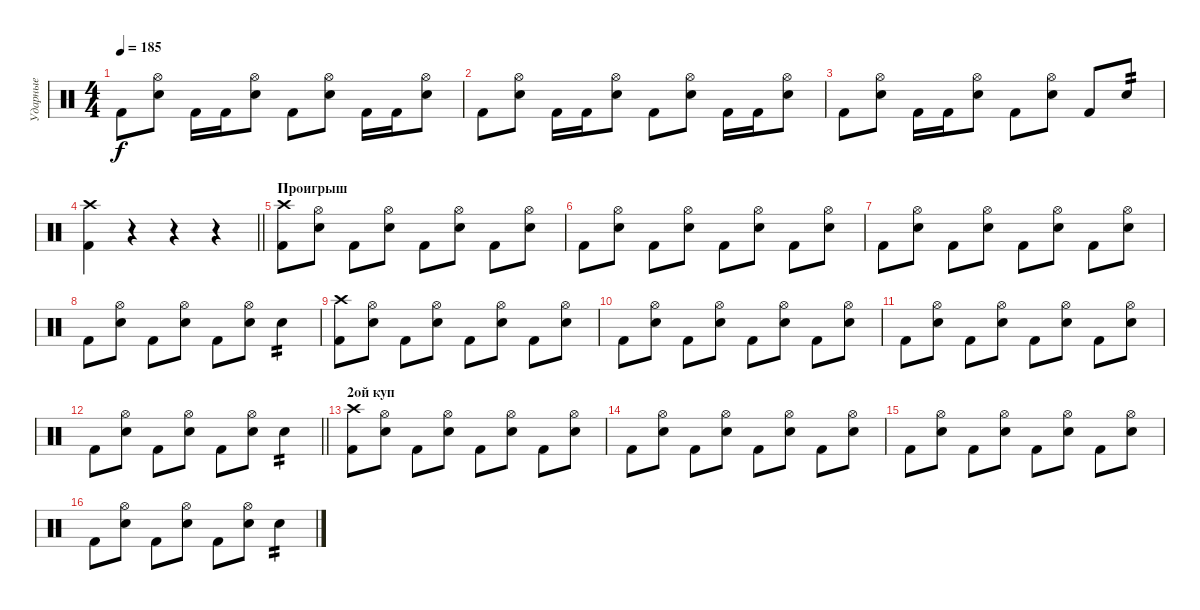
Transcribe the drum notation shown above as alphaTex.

\track ("Ударные" "Ударные") {instrument percussion}
\staff {score}
\articulation defaults
\ts (4 4)
\tempo 185
\clef neutral
\ks c "Kick (hit) 2".8{dy f}
("Hi-Hat (open)" "Electric Snare (hit)").8 "Kick (hit) 2".16 "Kick (hit) 2".16 ("Hi-Hat (open)" "Electric Snare (hit)").8 "Kick (hit) 2".8 ("Hi-Hat (open)" "Electric Snare (hit)").8 "Kick (hit) 2".16 "Kick (hit) 2".16 ("Hi-Hat (open)" "Electric Snare (hit)").8 |
"Kick (hit) 2".8 ("Hi-Hat (open)" "Electric Snare (hit)").8 "Kick (hit) 2".16 "Kick (hit) 2".16 ("Hi-Hat (open)" "Electric Snare (hit)").8 "Kick (hit) 2".8 ("Hi-Hat (open)" "Electric Snare (hit)").8 "Kick (hit) 2".16 "Kick (hit) 2".16 ("Hi-Hat (open)" "Electric Snare (hit)").8 |
"Kick (hit) 2".8 ("Hi-Hat (open)" "Electric Snare (hit)").8 "Kick (hit) 2".16 "Kick (hit) 2".16 ("Hi-Hat (open)" "Electric Snare (hit)").8 "Kick (hit) 2".8 ("Hi-Hat (open)" "Electric Snare (hit)").8 "Kick (hit) 2".8 "Electric Snare (hit)".8{tp 2} |
\barLineRight lightlight
("Crash high (hit)" "Kick (hit) 2").4 r.4 r.4 r.4 |
\section ("" "Проигрыш")
("Crash high (hit)" "Kick (hit) 2").8 ("Hi-Hat (open)" "Electric Snare (hit)").8 "Kick (hit) 2".8 ("Hi-Hat (open)" "Electric Snare (hit)").8 "Kick (hit) 2".8 ("Hi-Hat (open)" "Electric Snare (hit)").8 "Kick (hit) 2".8 ("Hi-Hat (open)" "Electric Snare (hit)").8 |
"Kick (hit) 2".8 ("Hi-Hat (open)" "Electric Snare (hit)").8 "Kick (hit) 2".8 ("Hi-Hat (open)" "Electric Snare (hit)").8 "Kick (hit) 2".8 ("Hi-Hat (open)" "Electric Snare (hit)").8 "Kick (hit) 2".8 ("Hi-Hat (open)" "Electric Snare (hit)").8 |
"Kick (hit) 2".8 ("Hi-Hat (open)" "Electric Snare (hit)").8 "Kick (hit) 2".8 ("Hi-Hat (open)" "Electric Snare (hit)").8 "Kick (hit) 2".8 ("Hi-Hat (open)" "Electric Snare (hit)").8 "Kick (hit) 2".8 ("Hi-Hat (open)" "Electric Snare (hit)").8 |
"Kick (hit) 2".8 ("Hi-Hat (open)" "Electric Snare (hit)").8 "Kick (hit) 2".8 ("Hi-Hat (open)" "Electric Snare (hit)").8 "Kick (hit) 2".8 ("Hi-Hat (open)" "Electric Snare (hit)").8 "Electric Snare (hit)".4{tp 2} |
("Crash high (hit)" "Kick (hit) 2").8 ("Hi-Hat (open)" "Electric Snare (hit)").8 "Kick (hit) 2".8 ("Hi-Hat (open)" "Electric Snare (hit)").8 "Kick (hit) 2".8 ("Hi-Hat (open)" "Electric Snare (hit)").8 "Kick (hit) 2".8 ("Hi-Hat (open)" "Electric Snare (hit)").8 |
"Kick (hit) 2".8 ("Hi-Hat (open)" "Electric Snare (hit)").8 "Kick (hit) 2".8 ("Hi-Hat (open)" "Electric Snare (hit)").8 "Kick (hit) 2".8 ("Hi-Hat (open)" "Electric Snare (hit)").8 "Kick (hit) 2".8 ("Hi-Hat (open)" "Electric Snare (hit)").8 |
"Kick (hit) 2".8 ("Hi-Hat (open)" "Electric Snare (hit)").8 "Kick (hit) 2".8 ("Hi-Hat (open)" "Electric Snare (hit)").8 "Kick (hit) 2".8 ("Hi-Hat (open)" "Electric Snare (hit)").8 "Kick (hit) 2".8 ("Hi-Hat (open)" "Electric Snare (hit)").8 |
\barLineRight lightlight "Kick (hit) 2".8
("Hi-Hat (open)" "Electric Snare (hit)").8 "Kick (hit) 2".8 ("Hi-Hat (open)" "Electric Snare (hit)").8 "Kick (hit) 2".8 ("Hi-Hat (open)" "Electric Snare (hit)").8 "Electric Snare (hit)".4{tp 2} |
\section ("" "2ой куп")
("Crash high (hit)" "Kick (hit) 2").8 ("Hi-Hat (open)" "Electric Snare (hit)").8 "Kick (hit) 2".8 ("Hi-Hat (open)" "Electric Snare (hit)").8 "Kick (hit) 2".8 ("Hi-Hat (open)" "Electric Snare (hit)").8 "Kick (hit) 2".8 ("Hi-Hat (open)" "Electric Snare (hit)").8 |
"Kick (hit) 2".8 ("Hi-Hat (open)" "Electric Snare (hit)").8 "Kick (hit) 2".8 ("Hi-Hat (open)" "Electric Snare (hit)").8 "Kick (hit) 2".8 ("Hi-Hat (open)" "Electric Snare (hit)").8 "Kick (hit) 2".8 ("Hi-Hat (open)" "Electric Snare (hit)").8 |
"Kick (hit) 2".8 ("Hi-Hat (open)" "Electric Snare (hit)").8 "Kick (hit) 2".8 ("Hi-Hat (open)" "Electric Snare (hit)").8 "Kick (hit) 2".8 ("Hi-Hat (open)" "Electric Snare (hit)").8 "Kick (hit) 2".8 ("Hi-Hat (open)" "Electric Snare (hit)").8 |
"Kick (hit) 2".8 ("Hi-Hat (open)" "Electric Snare (hit)").8 "Kick (hit) 2".8 ("Hi-Hat (open)" "Electric Snare (hit)").8 "Kick (hit) 2".8 ("Hi-Hat (open)" "Electric Snare (hit)").8 "Electric Snare (hit)".4{tp 2}
